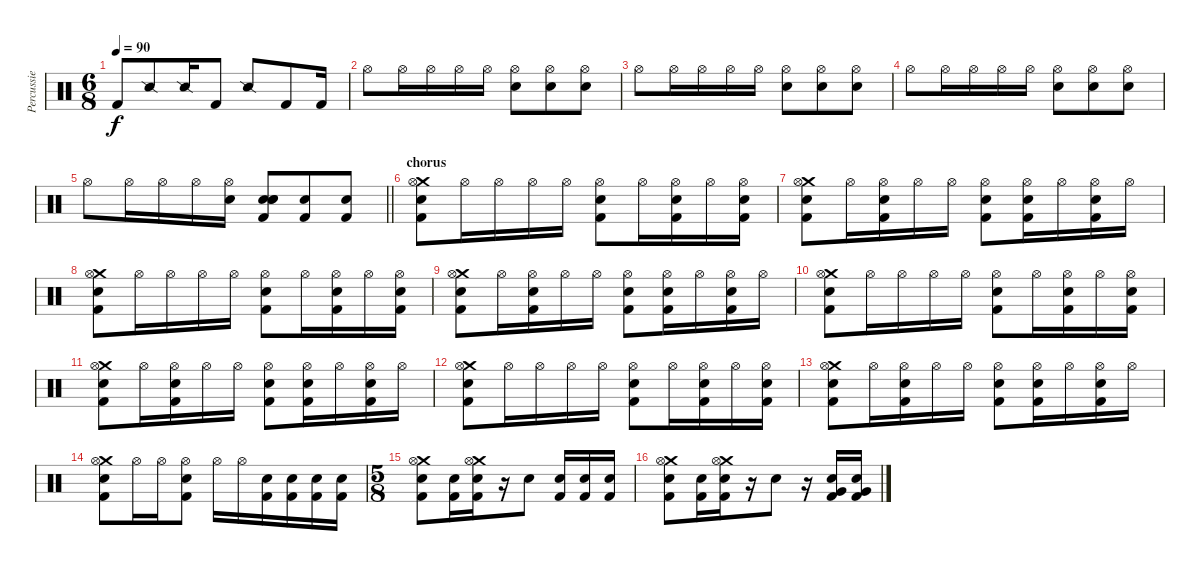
\track ("Percussie" "Percussie") {instrument percussion}
\staff {score}
\articulation defaults
\ts (6 8)
\tempo 90
\clef neutral
\ks c "Kick (hit) 2".8{dy f} "Snare (side stick) 2".8 "Snare (side stick) 2".16 "Kick (hit) 2".8 "Snare (side stick) 2".8 "Kick (hit) 2".8 "Kick (hit) 2".16
|
"Hi-Hat (open)".8 "Hi-Hat (open)".16 "Hi-Hat (open)".16 "Hi-Hat (open)".16 "Hi-Hat (open)".16 ("Hi-Hat (open)" "Snare (hit) 2").8 ("Hi-Hat (open)" "Snare (hit) 2").8 ("Hi-Hat (open)" "Snare (hit) 2").8 |
"Hi-Hat (open)".8 "Hi-Hat (open)".16 "Hi-Hat (open)".16 "Hi-Hat (open)".16 "Hi-Hat (open)".16 ("Hi-Hat (open)" "Snare (hit) 2").8 ("Hi-Hat (open)" "Snare (hit) 2").8 ("Hi-Hat (open)" "Snare (hit) 2").8 |
"Hi-Hat (open)".8 "Hi-Hat (open)".16 "Hi-Hat (open)".16 "Hi-Hat (open)".16 "Hi-Hat (open)".16 ("Hi-Hat (open)" "Snare (hit) 2").8 ("Hi-Hat (open)" "Snare (hit) 2").8 ("Hi-Hat (open)" "Snare (hit) 2").8 |
\barLineRight lightlight "Hi-Hat (open)".8 "Hi-Hat (open)".16 "Hi-Hat (open)".16 "Hi-Hat (open)".16
("Hi-Hat (open)" "Snare (hit) 2").16 ("Snare (hit) 2" "Snare (hit) 2" "Kick (hit) 2" "Electric Snare (hit)").8 ("Kick (hit) 2" "Electric Snare (hit)").8 ("Kick (hit) 2" "Electric Snare (hit)").8 |
\section ("" "chorus")
("Crash medium (hit)" "Hi-Hat (open)" "Snare (hit) 2" "Kick (hit) 2").8 "Hi-Hat (open)".16 "Hi-Hat (open)".16 "Hi-Hat (open)".16 "Hi-Hat (open)".16 ("Hi-Hat (open)" "Snare (hit) 2" "Kick (hit) 2").8 "Hi-Hat (open)".16 ("Hi-Hat (open)" "Snare (hit) 2" "Kick (hit) 2").16 "Hi-Hat (open)".16 ("Hi-Hat (open)" "Snare (hit) 2" "Kick (hit) 2").16 |
("Crash medium (hit)" "Hi-Hat (open)" "Snare (hit) 2" "Kick (hit) 2").8 "Hi-Hat (open)".16 ("Hi-Hat (open)" "Snare (hit) 2" "Kick (hit) 2").16 "Hi-Hat (open)".16 "Hi-Hat (open)".16 ("Hi-Hat (open)" "Snare (hit) 2" "Kick (hit) 2").8 ("Hi-Hat (open)" "Snare (hit) 2" "Kick (hit) 2").16 "Hi-Hat (open)".16 ("Hi-Hat (open)" "Snare (hit) 2" "Kick (hit) 2").16 "Hi-Hat (open)".16 |
("Crash medium (hit)" "Hi-Hat (open)" "Snare (hit) 2" "Kick (hit) 2").8 "Hi-Hat (open)".16 "Hi-Hat (open)".16 "Hi-Hat (open)".16 "Hi-Hat (open)".16 ("Hi-Hat (open)" "Snare (hit) 2" "Kick (hit) 2").8 "Hi-Hat (open)".16 ("Hi-Hat (open)" "Snare (hit) 2" "Kick (hit) 2").16 "Hi-Hat (open)".16 ("Hi-Hat (open)" "Snare (hit) 2" "Kick (hit) 2").16 |
("Crash medium (hit)" "Hi-Hat (open)" "Snare (hit) 2" "Kick (hit) 2").8 "Hi-Hat (open)".16 ("Hi-Hat (open)" "Snare (hit) 2" "Kick (hit) 2").16 "Hi-Hat (open)".16 "Hi-Hat (open)".16 ("Hi-Hat (open)" "Snare (hit) 2" "Kick (hit) 2").8 ("Hi-Hat (open)" "Snare (hit) 2" "Kick (hit) 2").16 "Hi-Hat (open)".16 ("Hi-Hat (open)" "Snare (hit) 2" "Kick (hit) 2").16 "Hi-Hat (open)".16 |
("Crash medium (hit)" "Hi-Hat (open)" "Snare (hit) 2" "Kick (hit) 2").8 "Hi-Hat (open)".16 "Hi-Hat (open)".16 "Hi-Hat (open)".16 "Hi-Hat (open)".16 ("Hi-Hat (open)" "Snare (hit) 2" "Kick (hit) 2").8 "Hi-Hat (open)".16 ("Hi-Hat (open)" "Snare (hit) 2" "Kick (hit) 2").16 "Hi-Hat (open)".16 ("Hi-Hat (open)" "Snare (hit) 2" "Kick (hit) 2").16 |
("Crash medium (hit)" "Hi-Hat (open)" "Snare (hit) 2" "Kick (hit) 2").8 "Hi-Hat (open)".16 ("Hi-Hat (open)" "Snare (hit) 2" "Kick (hit) 2").16 "Hi-Hat (open)".16 "Hi-Hat (open)".16 ("Hi-Hat (open)" "Snare (hit) 2" "Kick (hit) 2").8 ("Hi-Hat (open)" "Snare (hit) 2" "Kick (hit) 2").16 "Hi-Hat (open)".16 ("Hi-Hat (open)" "Snare (hit) 2" "Kick (hit) 2").16 "Hi-Hat (open)".16 |
("Crash medium (hit)" "Hi-Hat (open)" "Snare (hit) 2" "Kick (hit) 2").8 "Hi-Hat (open)".16 "Hi-Hat (open)".16 "Hi-Hat (open)".16 "Hi-Hat (open)".16 ("Hi-Hat (open)" "Snare (hit) 2" "Kick (hit) 2").8 "Hi-Hat (open)".16 ("Hi-Hat (open)" "Snare (hit) 2" "Kick (hit) 2").16 "Hi-Hat (open)".16 ("Hi-Hat (open)" "Snare (hit) 2" "Kick (hit) 2").16 |
("Crash medium (hit)" "Hi-Hat (open)" "Snare (hit) 2" "Kick (hit) 2").8 "Hi-Hat (open)".16 ("Hi-Hat (open)" "Snare (hit) 2" "Kick (hit) 2").16 "Hi-Hat (open)".16 "Hi-Hat (open)".16 ("Hi-Hat (open)" "Snare (hit) 2" "Kick (hit) 2").8 ("Hi-Hat (open)" "Snare (hit) 2" "Kick (hit) 2").16 "Hi-Hat (open)".16 ("Hi-Hat (open)" "Snare (hit) 2" "Kick (hit) 2").16 "Hi-Hat (open)".16 |
("Crash medium (hit)" "Hi-Hat (open)" "Snare (hit) 2" "Kick (hit) 2").8 "Hi-Hat (open)".16 "Hi-Hat (open)".16 ("Hi-Hat (open)" "Snare (hit) 2" "Kick (hit) 2").8 "Hi-Hat (open)".16 "Hi-Hat (open)".16 ("Snare (hit) 2" "Kick (hit) 2").16 ("Snare (hit) 2" "Kick (hit) 2").16 ("Snare (hit) 2" "Kick (hit) 2").16 ("Snare (hit) 2" "Kick (hit) 2").16 |
\ts (5 8)
("Crash medium (hit)" "Hi-Hat (open)" "Snare (hit) 2" "Kick (hit) 2").8 ("Snare (hit) 2" "Kick (hit) 2").16 ("Crash medium (hit)" "Hi-Hat (open)" "Snare (hit) 2" "Kick (hit) 2").16 r.16 "Snare (hit) 2".8 ("Snare (hit) 2" "Kick (hit) 2").16 ("Snare (hit) 2" "Kick (hit) 2").16 ("Snare (hit) 2" "Kick (hit) 2").16 |
("Crash medium (hit)" "Hi-Hat (open)" "Snare (hit) 2" "Kick (hit) 2").8 ("Snare (hit) 2" "Kick (hit) 2").16 ("Crash medium (hit)" "Hi-Hat (open)" "Snare (hit) 2" "Kick (hit) 2").16 r.16 "Snare (hit) 2".8 r.16 ("Very Low Tom (hit)" "Snare (hit) 2" "Kick (hit) 2").16 ("Very Low Tom (hit)" "Snare (hit) 2" "Kick (hit) 2").16
